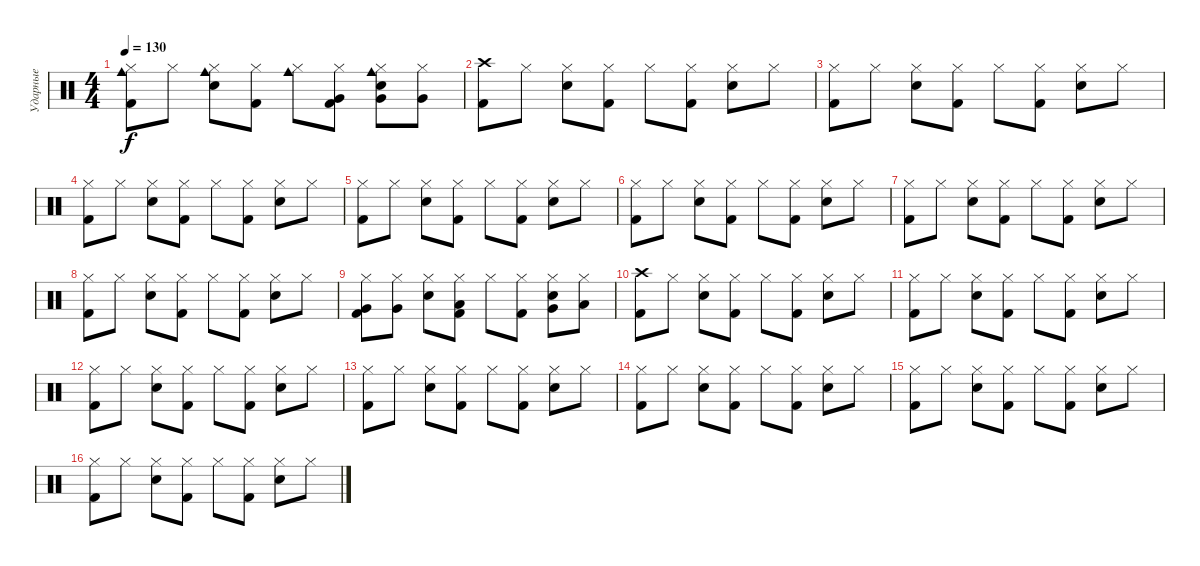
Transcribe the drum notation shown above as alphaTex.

\track ("Ударные" "Ударные") {instrument percussion}
\staff {score}
\articulation defaults
\ts (4 4)
\tempo 130
\clef neutral
\ks c
("Hi-Hat (closed)" "Cowbell medium (hit)" "Kick (hit) 2").8{dy f} "Hi-Hat (closed)".8 ("Hi-Hat (closed)" "Cowbell medium (hit)" "Snare (hit) 2").8 ("Hi-Hat (closed)" "Kick (hit) 2").8 ("Hi-Hat (closed)" "Cowbell medium (hit)").8 ("Hi-Hat (closed)" "Very Low Tom (hit)" "Kick (hit) 2").8 ("Hi-Hat (closed)" "Cowbell medium (hit)" "Very Low Tom (hit)" "Snare (hit) 2").8 ("Hi-Hat (closed)" "Very Low Tom (hit)").8 |
("Crash high (hit)" "Kick (hit) 2").8 "Hi-Hat (closed)".8 ("Hi-Hat (closed)" "Snare (hit) 2").8 ("Hi-Hat (closed)" "Kick (hit) 2").8 "Hi-Hat (closed)".8 ("Hi-Hat (closed)" "Kick (hit) 2").8 ("Hi-Hat (closed)" "Snare (hit) 2").8 "Hi-Hat (closed)".8 |
("Hi-Hat (closed)" "Kick (hit) 2").8 "Hi-Hat (closed)".8 ("Hi-Hat (closed)" "Snare (hit) 2").8 ("Hi-Hat (closed)" "Kick (hit) 2").8 "Hi-Hat (closed)".8 ("Hi-Hat (closed)" "Kick (hit) 2").8 ("Hi-Hat (closed)" "Snare (hit) 2").8 "Hi-Hat (closed)".8 |
("Hi-Hat (closed)" "Kick (hit) 2").8 "Hi-Hat (closed)".8 ("Hi-Hat (closed)" "Snare (hit) 2").8 ("Hi-Hat (closed)" "Kick (hit) 2").8 "Hi-Hat (closed)".8 ("Hi-Hat (closed)" "Kick (hit) 2").8 ("Hi-Hat (closed)" "Snare (hit) 2").8 "Hi-Hat (closed)".8 |
("Hi-Hat (closed)" "Kick (hit) 2").8 "Hi-Hat (closed)".8 ("Hi-Hat (closed)" "Snare (hit) 2").8 ("Hi-Hat (closed)" "Kick (hit) 2").8 "Hi-Hat (closed)".8 ("Hi-Hat (closed)" "Kick (hit) 2").8 ("Hi-Hat (closed)" "Snare (hit) 2").8 "Hi-Hat (closed)".8 |
("Hi-Hat (closed)" "Kick (hit) 2").8 "Hi-Hat (closed)".8 ("Hi-Hat (closed)" "Snare (hit) 2").8 ("Hi-Hat (closed)" "Kick (hit) 2").8 "Hi-Hat (closed)".8 ("Hi-Hat (closed)" "Kick (hit) 2").8 ("Hi-Hat (closed)" "Snare (hit) 2").8 "Hi-Hat (closed)".8 |
("Hi-Hat (closed)" "Kick (hit) 2").8 "Hi-Hat (closed)".8 ("Hi-Hat (closed)" "Snare (hit) 2").8 ("Hi-Hat (closed)" "Kick (hit) 2").8 "Hi-Hat (closed)".8 ("Hi-Hat (closed)" "Kick (hit) 2").8 ("Hi-Hat (closed)" "Snare (hit) 2").8 "Hi-Hat (closed)".8 |
("Hi-Hat (closed)" "Kick (hit) 2").8 "Hi-Hat (closed)".8 ("Hi-Hat (closed)" "Snare (hit) 2").8 ("Hi-Hat (closed)" "Kick (hit) 2").8 "Hi-Hat (closed)".8 ("Hi-Hat (closed)" "Kick (hit) 2").8 ("Hi-Hat (closed)" "Snare (hit) 2").8 "Hi-Hat (closed)".8 |
("Hi-Hat (closed)" "Very Low Tom (hit)" "Kick (hit) 2").8 ("Hi-Hat (closed)" "Very Low Tom (hit)").8 ("Hi-Hat (closed)" "Snare (hit) 2").8 ("Hi-Hat (closed)" "Low Tom (hit)" "Kick (hit) 2").8 "Hi-Hat (closed)".8 ("Hi-Hat (closed)" "Kick (hit) 2").8 ("Hi-Hat (closed)" "Very Low Tom (hit)" "Snare (hit) 2").8 ("Hi-Hat (closed)" "Low Floor Tom (hit)").8 |
("Crash high (hit)" "Kick (hit) 2").8 "Hi-Hat (closed)".8 ("Hi-Hat (closed)" "Snare (hit) 2").8 ("Hi-Hat (closed)" "Kick (hit) 2").8 "Hi-Hat (closed)".8 ("Hi-Hat (closed)" "Kick (hit) 2").8 ("Hi-Hat (closed)" "Snare (hit) 2").8 "Hi-Hat (closed)".8 |
("Hi-Hat (closed)" "Kick (hit) 2").8 "Hi-Hat (closed)".8 ("Hi-Hat (closed)" "Snare (hit) 2").8 ("Hi-Hat (closed)" "Kick (hit) 2").8 "Hi-Hat (closed)".8 ("Hi-Hat (closed)" "Kick (hit) 2").8 ("Hi-Hat (closed)" "Snare (hit) 2").8 "Hi-Hat (closed)".8 |
("Hi-Hat (closed)" "Kick (hit) 2").8 "Hi-Hat (closed)".8 ("Hi-Hat (closed)" "Snare (hit) 2").8 ("Hi-Hat (closed)" "Kick (hit) 2").8 "Hi-Hat (closed)".8 ("Hi-Hat (closed)" "Kick (hit) 2").8 ("Hi-Hat (closed)" "Snare (hit) 2").8 "Hi-Hat (closed)".8 |
("Hi-Hat (closed)" "Kick (hit) 2").8 "Hi-Hat (closed)".8 ("Hi-Hat (closed)" "Snare (hit) 2").8 ("Hi-Hat (closed)" "Kick (hit) 2").8 "Hi-Hat (closed)".8 ("Hi-Hat (closed)" "Kick (hit) 2").8 ("Hi-Hat (closed)" "Snare (hit) 2").8 "Hi-Hat (closed)".8 |
("Hi-Hat (closed)" "Kick (hit) 2").8 "Hi-Hat (closed)".8 ("Hi-Hat (closed)" "Snare (hit) 2").8 ("Hi-Hat (closed)" "Kick (hit) 2").8 "Hi-Hat (closed)".8 ("Hi-Hat (closed)" "Kick (hit) 2").8 ("Hi-Hat (closed)" "Snare (hit) 2").8 "Hi-Hat (closed)".8 |
("Hi-Hat (closed)" "Kick (hit) 2").8 "Hi-Hat (closed)".8 ("Hi-Hat (closed)" "Snare (hit) 2").8 ("Hi-Hat (closed)" "Kick (hit) 2").8 "Hi-Hat (closed)".8 ("Hi-Hat (closed)" "Kick (hit) 2").8 ("Hi-Hat (closed)" "Snare (hit) 2").8 "Hi-Hat (closed)".8 |
("Hi-Hat (closed)" "Kick (hit) 2").8 "Hi-Hat (closed)".8 ("Hi-Hat (closed)" "Snare (hit) 2").8 ("Hi-Hat (closed)" "Kick (hit) 2").8 "Hi-Hat (closed)".8 ("Hi-Hat (closed)" "Kick (hit) 2").8 ("Hi-Hat (closed)" "Snare (hit) 2").8 "Hi-Hat (closed)".8
